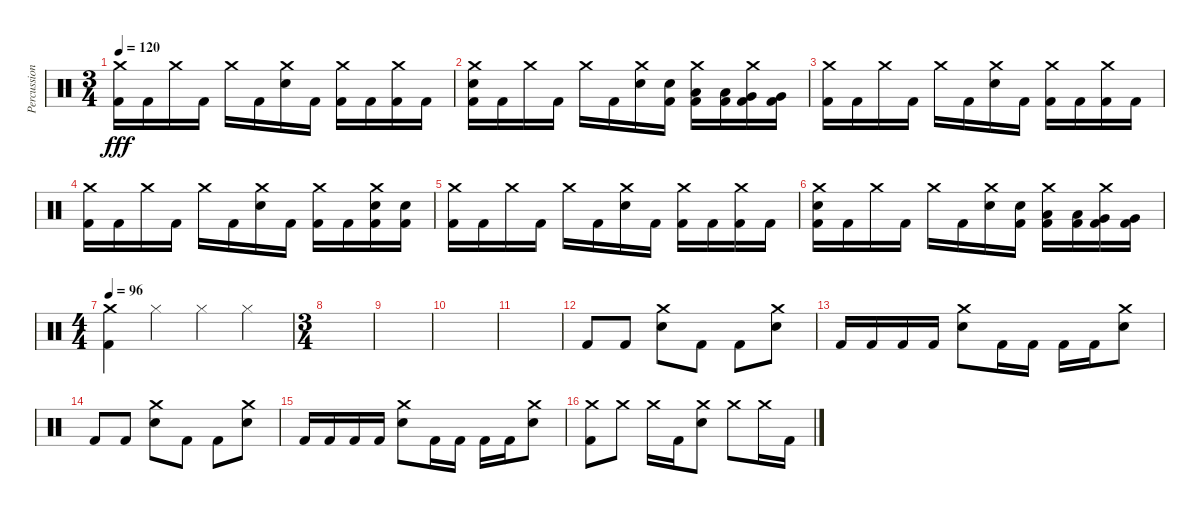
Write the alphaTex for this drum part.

\track ("Percussion" "Percussion") {instrument percussion}
\staff {score}
\articulation defaults
\ts (3 4)
\tempo 120
\clef neutral
\ks c
("Crash medium (hit)" "Kick (hit) 2").16{dy fff} "Kick (hit) 2".16 "Crash medium (hit)".16 "Kick (hit) 2".16 "Crash medium (hit)".16 "Kick (hit) 2".16 ("Crash medium (hit)" "Electric Snare (hit)").16 "Kick (hit) 2".16 ("Crash medium (hit)" "Kick (hit) 2").16 "Kick (hit) 2".16 ("Crash medium (hit)" "Kick (hit) 2").16 "Kick (hit) 2".16 |
("Crash medium (hit)" "Electric Snare (hit)" "Kick (hit) 2").16 "Kick (hit) 2".16 "Crash medium (hit)".16 "Kick (hit) 2".16 "Crash medium (hit)".16 "Kick (hit) 2".16 ("Crash medium (hit)" "Electric Snare (hit)").16 ("Electric Snare (hit)" "Kick (hit) 2").16 ("Crash medium (hit)" "Low Tom (hit)" "Kick (hit) 2").16 ("Low Tom (hit)" "Kick (hit) 2").16 ("Crash medium (hit)" "Very Low Tom (hit)" "Kick (hit) 2").16 ("Very Low Tom (hit)" "Kick (hit) 2").16 |
("Crash medium (hit)" "Kick (hit) 2").16 "Kick (hit) 2".16 "Crash medium (hit)".16 "Kick (hit) 2".16 "Crash medium (hit)".16 "Kick (hit) 2".16 ("Crash medium (hit)" "Electric Snare (hit)").16 "Kick (hit) 2".16 ("Crash medium (hit)" "Kick (hit) 2").16 "Kick (hit) 2".16 ("Crash medium (hit)" "Kick (hit) 2").16 "Kick (hit) 2".16 |
("Crash medium (hit)" "Kick (hit) 2").16 "Kick (hit) 2".16 "Crash medium (hit)".16 "Kick (hit) 2".16 "Crash medium (hit)".16 "Kick (hit) 2".16 ("Crash medium (hit)" "Electric Snare (hit)").16 "Kick (hit) 2".16 ("Crash medium (hit)" "Kick (hit) 2").16 "Kick (hit) 2".16 ("Crash medium (hit)" "Electric Snare (hit)" "Kick (hit) 2").16 ("Electric Snare (hit)" "Kick (hit) 2").16 |
("Crash medium (hit)" "Kick (hit) 2").16 "Kick (hit) 2".16 "Crash medium (hit)".16 "Kick (hit) 2".16 "Crash medium (hit)".16 "Kick (hit) 2".16 ("Crash medium (hit)" "Electric Snare (hit)").16 "Kick (hit) 2".16 ("Crash medium (hit)" "Kick (hit) 2").16 "Kick (hit) 2".16 ("Crash medium (hit)" "Kick (hit) 2").16 "Kick (hit) 2".16 |
("Crash medium (hit)" "Electric Snare (hit)" "Kick (hit) 2").16 "Kick (hit) 2".16 "Crash medium (hit)".16 "Kick (hit) 2".16 "Crash medium (hit)".16 "Kick (hit) 2".16 ("Crash medium (hit)" "Electric Snare (hit)").16 ("Electric Snare (hit)" "Kick (hit) 2").16 ("Crash medium (hit)" "Low Tom (hit)" "Kick (hit) 2").16 ("Low Tom (hit)" "Kick (hit) 2").16 ("Crash medium (hit)" "Very Low Tom (hit)" "Kick (hit) 2").16 ("Very Low Tom (hit)" "Kick (hit) 2").16 |
\ts (4 4)
\tempo 96
("Crash medium (hit)" "Kick (hit) 2").4 "Hi-Hat (closed)".4 "Hi-Hat (closed)".4 "Hi-Hat (closed)".4 |
\ts (3 4)
|
|
|
|
"Kick (hit) 2".8 "Kick (hit) 2".8 ("Crash medium (hit)" "Electric Snare (hit)").8 "Kick (hit) 2".8 "Kick (hit) 2".8 ("Crash medium (hit)" "Electric Snare (hit)").8 |
"Kick (hit) 2".16 "Kick (hit) 2".16 "Kick (hit) 2".16 "Kick (hit) 2".16 ("Crash medium (hit)" "Electric Snare (hit)").8 "Kick (hit) 2".16 "Kick (hit) 2".16 "Kick (hit) 2".16 "Kick (hit) 2".16 ("Crash medium (hit)" "Electric Snare (hit)").8 |
"Kick (hit) 2".8 "Kick (hit) 2".8 ("Crash medium (hit)" "Electric Snare (hit)").8 "Kick (hit) 2".8 "Kick (hit) 2".8 ("Crash medium (hit)" "Electric Snare (hit)").8 |
"Kick (hit) 2".16 "Kick (hit) 2".16 "Kick (hit) 2".16 "Kick (hit) 2".16 ("Crash medium (hit)" "Electric Snare (hit)").8 "Kick (hit) 2".16 "Kick (hit) 2".16 "Kick (hit) 2".16 "Kick (hit) 2".16 ("Crash medium (hit)" "Electric Snare (hit)").8 |
("Crash medium (hit)" "Kick (hit) 2").8 "Crash medium (hit)".8 "Crash medium (hit)".16 "Kick (hit) 2".16 ("Crash medium (hit)" "Electric Snare (hit)").8 "Crash medium (hit)".8 "Crash medium (hit)".16 "Kick (hit) 2".16
